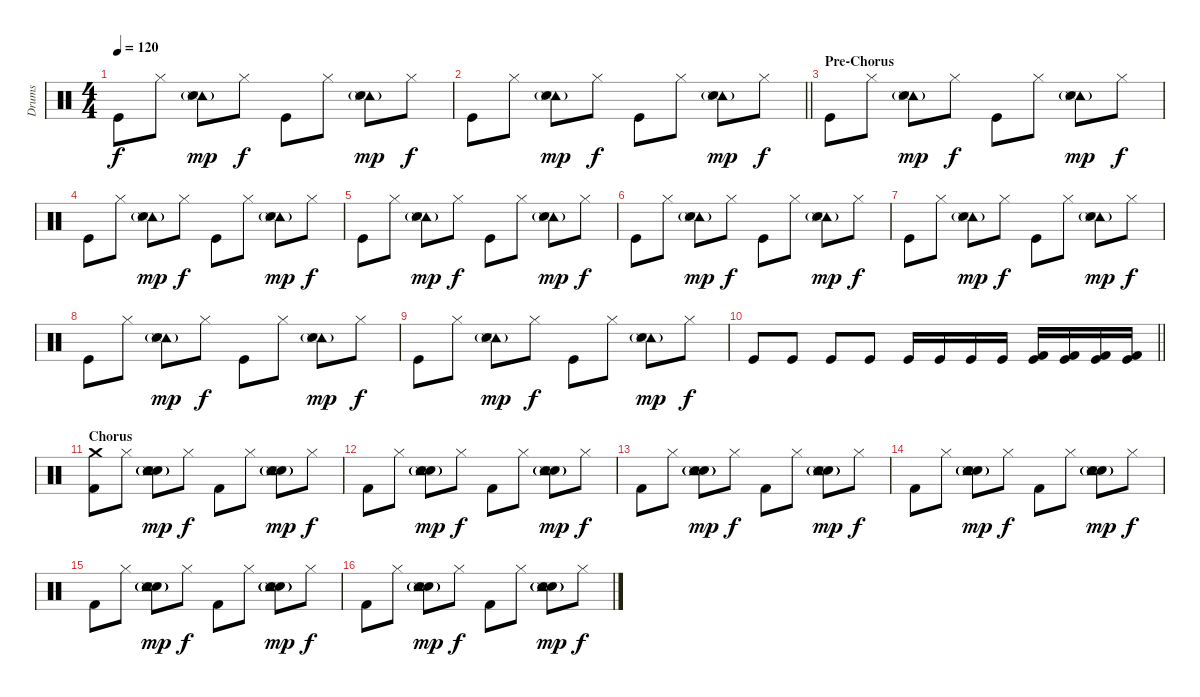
\track ("Drums" "Drums") {instrument percussion}
\staff {score}
\articulation defaults
\ts (4 4)
\tempo 120
\clef neutral
\ks c "Kick (hit)".8{dy f} "Hi-Hat (closed)".8
("Tambourine (hit)" "Electric Snare (hit)" "Snare (side stick) 3"{g}).8{dy mp} "Hi-Hat (closed)".8{dy f} "Kick (hit)".8 "Hi-Hat (closed)".8 ("Tambourine (hit)" "Electric Snare (hit)" "Snare (side stick) 3"{g}).8{dy mp} "Hi-Hat (closed)".8{dy f} |
\barLineRight lightlight "Kick (hit)".8 "Hi-Hat (closed)".8
("Tambourine (hit)" "Electric Snare (hit)" "Snare (side stick) 3"{g}).8{dy mp} "Hi-Hat (closed)".8{dy f} "Kick (hit)".8 "Hi-Hat (closed)".8 ("Tambourine (hit)" "Electric Snare (hit)" "Snare (side stick) 3"{g}).8{dy mp} "Hi-Hat (closed)".8{dy f} |
\section ("" "Pre-Chorus")
"Kick (hit)".8 "Hi-Hat (closed)".8 ("Tambourine (hit)" "Electric Snare (hit)" "Snare (side stick) 3"{g}).8{dy mp} "Hi-Hat (closed)".8{dy f} "Kick (hit)".8 "Hi-Hat (closed)".8 ("Tambourine (hit)" "Electric Snare (hit)" "Snare (side stick) 3"{g}).8{dy mp} "Hi-Hat (closed)".8{dy f} |
"Kick (hit)".8 "Hi-Hat (closed)".8 ("Tambourine (hit)" "Electric Snare (hit)" "Snare (side stick) 3"{g}).8{dy mp} "Hi-Hat (closed)".8{dy f} "Kick (hit)".8 "Hi-Hat (closed)".8 ("Tambourine (hit)" "Electric Snare (hit)" "Snare (side stick) 3"{g}).8{dy mp} "Hi-Hat (closed)".8{dy f} |
"Kick (hit)".8 "Hi-Hat (closed)".8 ("Tambourine (hit)" "Electric Snare (hit)" "Snare (side stick) 3"{g}).8{dy mp} "Hi-Hat (closed)".8{dy f} "Kick (hit)".8 "Hi-Hat (closed)".8 ("Tambourine (hit)" "Electric Snare (hit)" "Snare (side stick) 3"{g}).8{dy mp} "Hi-Hat (closed)".8{dy f} |
"Kick (hit)".8 "Hi-Hat (closed)".8 ("Tambourine (hit)" "Electric Snare (hit)" "Snare (side stick) 3"{g}).8{dy mp} "Hi-Hat (closed)".8{dy f} "Kick (hit)".8 "Hi-Hat (closed)".8 ("Tambourine (hit)" "Electric Snare (hit)" "Snare (side stick) 3"{g}).8{dy mp} "Hi-Hat (closed)".8{dy f} |
"Kick (hit)".8 "Hi-Hat (closed)".8 ("Tambourine (hit)" "Electric Snare (hit)" "Snare (side stick) 3"{g}).8{dy mp} "Hi-Hat (closed)".8{dy f} "Kick (hit)".8 "Hi-Hat (closed)".8 ("Tambourine (hit)" "Electric Snare (hit)" "Snare (side stick) 3"{g}).8{dy mp} "Hi-Hat (closed)".8{dy f} |
"Kick (hit)".8 "Hi-Hat (closed)".8 ("Tambourine (hit)" "Electric Snare (hit)" "Snare (side stick) 3"{g}).8{dy mp} "Hi-Hat (closed)".8{dy f} "Kick (hit)".8 "Hi-Hat (closed)".8 ("Tambourine (hit)" "Electric Snare (hit)" "Snare (side stick) 3"{g}).8{dy mp} "Hi-Hat (closed)".8{dy f} |
"Kick (hit)".8 "Hi-Hat (closed)".8 ("Tambourine (hit)" "Electric Snare (hit)" "Snare (side stick) 3"{g}).8{dy mp} "Hi-Hat (closed)".8{dy f} "Kick (hit)".8 "Hi-Hat (closed)".8 ("Tambourine (hit)" "Electric Snare (hit)" "Snare (side stick) 3"{g}).8{dy mp} "Hi-Hat (closed)".8{dy f} |
\barLineRight lightlight "Kick (hit)".8 "Kick (hit)".8 "Kick (hit)".8 "Kick (hit)".8 "Kick (hit)".16 "Kick (hit)".16 "Kick (hit)".16 "Kick (hit)".16
("Kick (hit) 2" "Kick (hit)").16 ("Kick (hit) 2" "Kick (hit)").16 ("Kick (hit) 2" "Kick (hit)").16 ("Kick (hit) 2" "Kick (hit)").16 |
\section ("" "Chorus")
("Crash medium (hit)" "Kick (hit) 2").8{volume 12 balance 8} "Hi-Hat (closed)".8 ("Snare (hit) 2"{g} "Tambourine (hit)"{g} "Electric Snare (hit)" "Snare (side stick) 3"{g}).8{dy mp} "Hi-Hat (closed)".8{dy f} "Kick (hit) 2".8 "Hi-Hat (closed)".8 ("Snare (hit) 2"{g} "Tambourine (hit)"{g} "Electric Snare (hit)" "Snare (side stick) 3"{g}).8{dy mp} "Hi-Hat (closed)".8{dy f} |
"Kick (hit) 2".8 "Hi-Hat (closed)".8 ("Snare (hit) 2"{g} "Tambourine (hit)"{g} "Electric Snare (hit)" "Snare (side stick) 3"{g}).8{dy mp} "Hi-Hat (closed)".8{dy f} "Kick (hit) 2".8 "Hi-Hat (closed)".8 ("Snare (hit) 2"{g} "Tambourine (hit)"{g} "Electric Snare (hit)" "Snare (side stick) 3"{g}).8{dy mp} "Hi-Hat (closed)".8{dy f} |
"Kick (hit) 2".8 "Hi-Hat (closed)".8 ("Snare (hit) 2"{g} "Tambourine (hit)"{g} "Electric Snare (hit)" "Snare (side stick) 3"{g}).8{dy mp} "Hi-Hat (closed)".8{dy f} "Kick (hit) 2".8 "Hi-Hat (closed)".8 ("Snare (hit) 2"{g} "Tambourine (hit)"{g} "Electric Snare (hit)" "Snare (side stick) 3"{g}).8{dy mp} "Hi-Hat (closed)".8{dy f} |
"Kick (hit) 2".8 "Hi-Hat (closed)".8 ("Snare (hit) 2"{g} "Tambourine (hit)"{g} "Electric Snare (hit)" "Snare (side stick) 3"{g}).8{dy mp} "Hi-Hat (closed)".8{dy f} "Kick (hit) 2".8 "Hi-Hat (closed)".8 ("Snare (hit) 2"{g} "Tambourine (hit)"{g} "Electric Snare (hit)" "Snare (side stick) 3"{g}).8{dy mp} "Hi-Hat (closed)".8{dy f} |
"Kick (hit) 2".8 "Hi-Hat (closed)".8 ("Snare (hit) 2"{g} "Tambourine (hit)"{g} "Electric Snare (hit)" "Snare (side stick) 3"{g}).8{dy mp} "Hi-Hat (closed)".8{dy f} "Kick (hit) 2".8 "Hi-Hat (closed)".8 ("Snare (hit) 2"{g} "Tambourine (hit)"{g} "Electric Snare (hit)" "Snare (side stick) 3"{g}).8{dy mp} "Hi-Hat (closed)".8{dy f} |
"Kick (hit) 2".8 "Hi-Hat (closed)".8 ("Snare (hit) 2"{g} "Tambourine (hit)"{g} "Electric Snare (hit)" "Snare (side stick) 3"{g}).8{dy mp} "Hi-Hat (closed)".8{dy f} "Kick (hit) 2".8 "Hi-Hat (closed)".8 ("Snare (hit) 2"{g} "Tambourine (hit)"{g} "Electric Snare (hit)" "Snare (side stick) 3"{g}).8{dy mp} "Hi-Hat (closed)".8{dy f}
